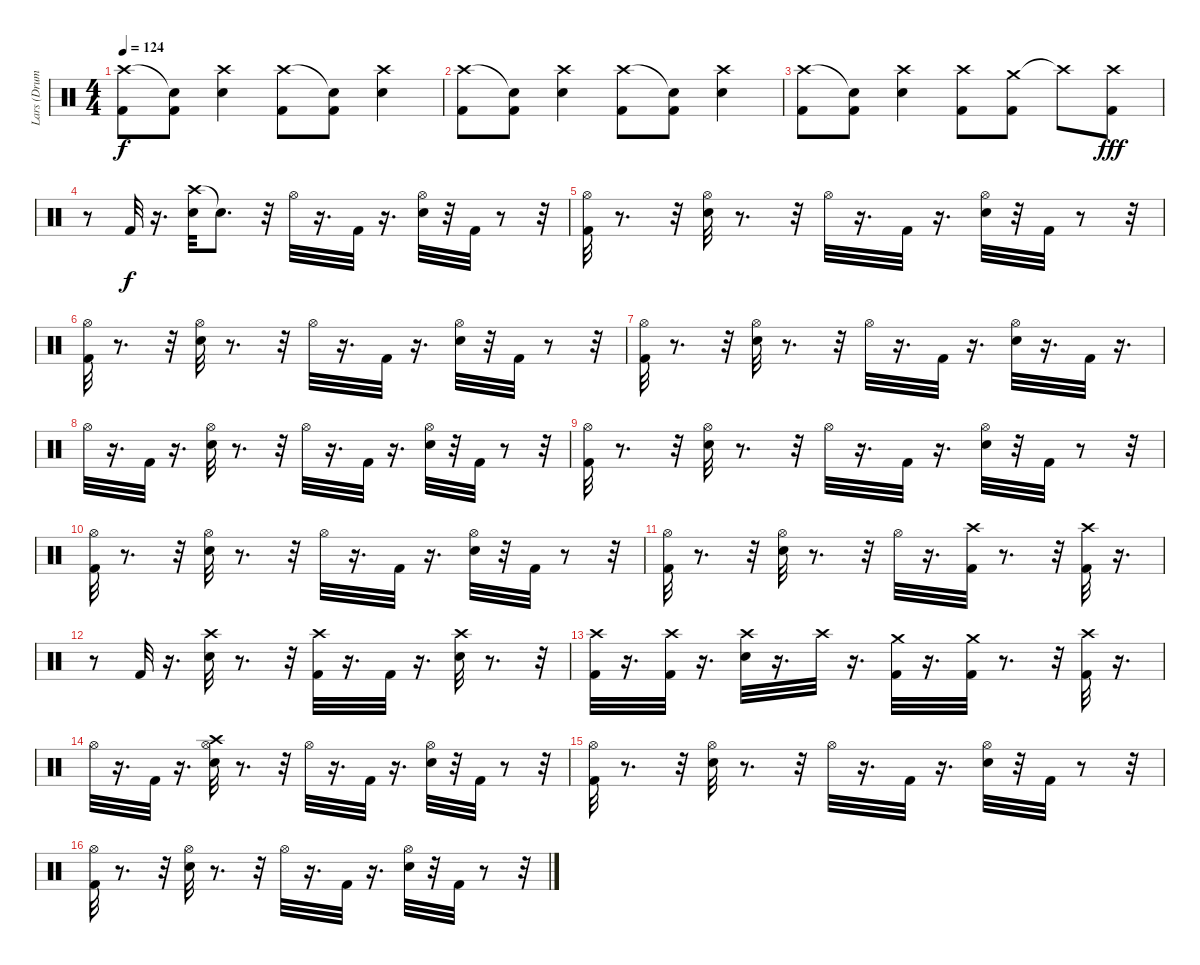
\track ("Lars (Drums)" "Lars (Drum") {instrument percussion}
\staff {score}
\articulation defaults
\ts (4 4)
\tempo 124
\clef neutral
\ks c
("Crash high (hit)" "Kick (hit) 2").8{dy f} ("Snare (hit)"{t} "Kick (hit) 2").8 ("Crash high (hit)" "Snare (hit) 2").4 ("Crash high (hit)" "Kick (hit) 2").8 ("Snare (hit)"{t} "Kick (hit) 2").8 ("Crash high (hit)" "Snare (hit) 2").4 |
("Crash high (hit)" "Kick (hit) 2").8 ("Snare (hit)"{t} "Kick (hit) 2").8 ("Crash high (hit)" "Snare (hit) 2").4 ("Crash high (hit)" "Kick (hit) 2").8 ("Snare (hit)"{t} "Kick (hit) 2").8 ("Crash high (hit)" "Snare (hit) 2").4 |
("Crash high (hit)" "Kick (hit) 2").8 ("Snare (hit)"{t} "Kick (hit) 2").8 ("Crash high (hit)" "Snare (hit) 2").4 ("Crash high (hit)" "Kick (hit) 2").8 ("Crash medium (hit)" "Kick (hit) 2").8 "Crash high (hit)"{t}.8 ("Crash high (hit)" "Kick (hit) 2").8{dy fff} |
r.8 "Kick (hit) 2".32{dy f} r.16{d} ("Crash high (hit)" "Electric Snare (hit)").32 "Snare (hit)"{t}.8{d} r.32 "Hi-Hat (open)".32 r.16{d} "Kick (hit) 2".32 r.16{d} ("Electric Snare (hit)" "Hi-Hat (open)").32 r.32 "Kick (hit) 2".32 r.8 r.32 |
("Kick (hit) 2" "Hi-Hat (open)").32 r.8{d} r.32 ("Electric Snare (hit)" "Hi-Hat (open)").32 r.8{d} r.32 "Hi-Hat (open)".32 r.16{d} "Kick (hit) 2".32 r.16{d} ("Electric Snare (hit)" "Hi-Hat (open)").32 r.32 "Kick (hit) 2".32 r.8 r.32 |
("Kick (hit) 2" "Hi-Hat (open)").32 r.8{d} r.32 ("Electric Snare (hit)" "Hi-Hat (open)").32 r.8{d} r.32 "Hi-Hat (open)".32 r.16{d} "Kick (hit) 2".32 r.16{d} ("Electric Snare (hit)" "Hi-Hat (open)").32 r.32 "Kick (hit) 2".32 r.8 r.32 |
("Kick (hit) 2" "Hi-Hat (open)").32 r.8{d} r.32 ("Electric Snare (hit)" "Hi-Hat (open)").32 r.8{d} r.32 "Hi-Hat (open)".32 r.16{d} "Kick (hit) 2".32 r.16{d} ("Electric Snare (hit)" "Hi-Hat (open)").32 r.16{d} "Kick (hit) 2".32 r.16{d} |
"Hi-Hat (open)".32 r.16{d} "Kick (hit) 2".32 r.16{d} ("Hi-Hat (open)" "Electric Snare (hit)").32 r.8{d} r.32 "Hi-Hat (open)".32 r.16{d} "Kick (hit) 2".32 r.16{d} ("Electric Snare (hit)" "Hi-Hat (open)").32 r.32 "Kick (hit) 2".32 r.8 r.32 |
("Kick (hit) 2" "Hi-Hat (open)").32 r.8{d} r.32 ("Electric Snare (hit)" "Hi-Hat (open)").32 r.8{d} r.32 "Hi-Hat (open)".32 r.16{d} "Kick (hit) 2".32 r.16{d} ("Electric Snare (hit)" "Hi-Hat (open)").32 r.32 "Kick (hit) 2".32 r.8 r.32 |
("Kick (hit) 2" "Hi-Hat (open)").32 r.8{d} r.32 ("Electric Snare (hit)" "Hi-Hat (open)").32 r.8{d} r.32 "Hi-Hat (open)".32 r.16{d} "Kick (hit) 2".32 r.16{d} ("Electric Snare (hit)" "Hi-Hat (open)").32 r.32 "Kick (hit) 2".32 r.8 r.32 |
("Kick (hit) 2" "Hi-Hat (open)").32 r.8{d} r.32 ("Electric Snare (hit)" "Hi-Hat (open)").32 r.8{d} r.32 "Hi-Hat (open)".32 r.16{d} ("Crash high (hit)" "Kick (hit) 2").32 r.8{d} r.32 ("Crash high (hit)" "Kick (hit) 2").32 r.16{d} |
r.8 "Kick (hit) 2".32 r.16{d} ("Electric Snare (hit)" "Crash high (hit)").32 r.8{d} r.32 ("Kick (hit) 2" "Crash high (hit)").32 r.16{d} "Kick (hit) 2".32 r.16{d} ("Electric Snare (hit)" "Crash high (hit)").32 r.8{d} r.32 |
("Kick (hit) 2" "Crash high (hit)").32 r.16{d} ("Crash high (hit)" "Kick (hit) 2").32 r.16{d} ("Electric Snare (hit)" "Crash high (hit)").32 r.16{d} "Crash high (hit)".32 r.16{d} ("Crash medium (hit)" "Kick (hit) 2").32 r.16{d} ("Crash medium (hit)" "Kick (hit) 2").32 r.8{d} r.32 ("Kick (hit) 2" "Crash high (hit)").32 r.16{d} |
"Hi-Hat (open)".32 r.16{d} "Kick (hit) 2".32 r.16{d} ("Hi-Hat (open)" "Electric Snare (hit)" "Crash high (hit)").32 r.8{d} r.32 "Hi-Hat (open)".32 r.16{d} "Kick (hit) 2".32 r.16{d} ("Electric Snare (hit)" "Hi-Hat (open)").32 r.32 "Kick (hit) 2".32 r.8 r.32 |
("Kick (hit) 2" "Hi-Hat (open)").32 r.8{d} r.32 ("Electric Snare (hit)" "Hi-Hat (open)").32 r.8{d} r.32 "Hi-Hat (open)".32 r.16{d} "Kick (hit) 2".32 r.16{d} ("Electric Snare (hit)" "Hi-Hat (open)").32 r.32 "Kick (hit) 2".32 r.8 r.32 |
("Kick (hit) 2" "Hi-Hat (open)").32 r.8{d} r.32 ("Electric Snare (hit)" "Hi-Hat (open)").32 r.8{d} r.32 "Hi-Hat (open)".32 r.16{d} "Kick (hit) 2".32 r.16{d} ("Electric Snare (hit)" "Hi-Hat (open)").32 r.32 "Kick (hit) 2".32 r.8 r.32
